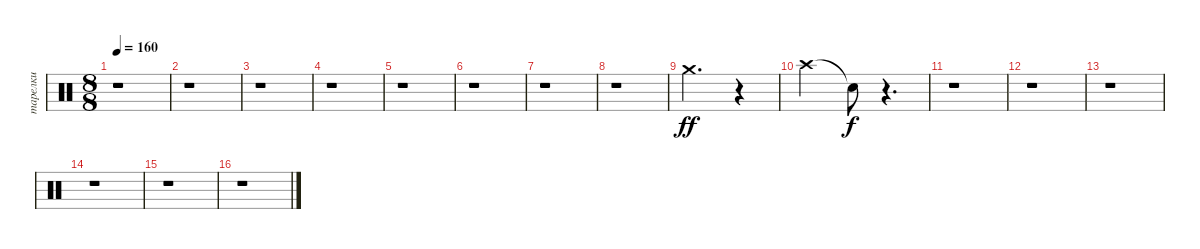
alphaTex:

\track ("тарелки" "тарелки") {instrument percussion}
\staff {score}
\articulation defaults
\ts (8 8)
\tempo 160
\clef neutral
\ks c
r.1{dy ff} |
r.1 |
r.1 |
r.1 |
r.1 |
r.1 |
r.1 |
r.1 |
"Crash medium (hit)".2{d} r.4 |
"Crash high (hit)".2 "Snare (hit)"{t}.8{dy f} r.4{d} |
r.1 |
r.1 |
r.1 |
r.1 |
r.1 |
r.1
